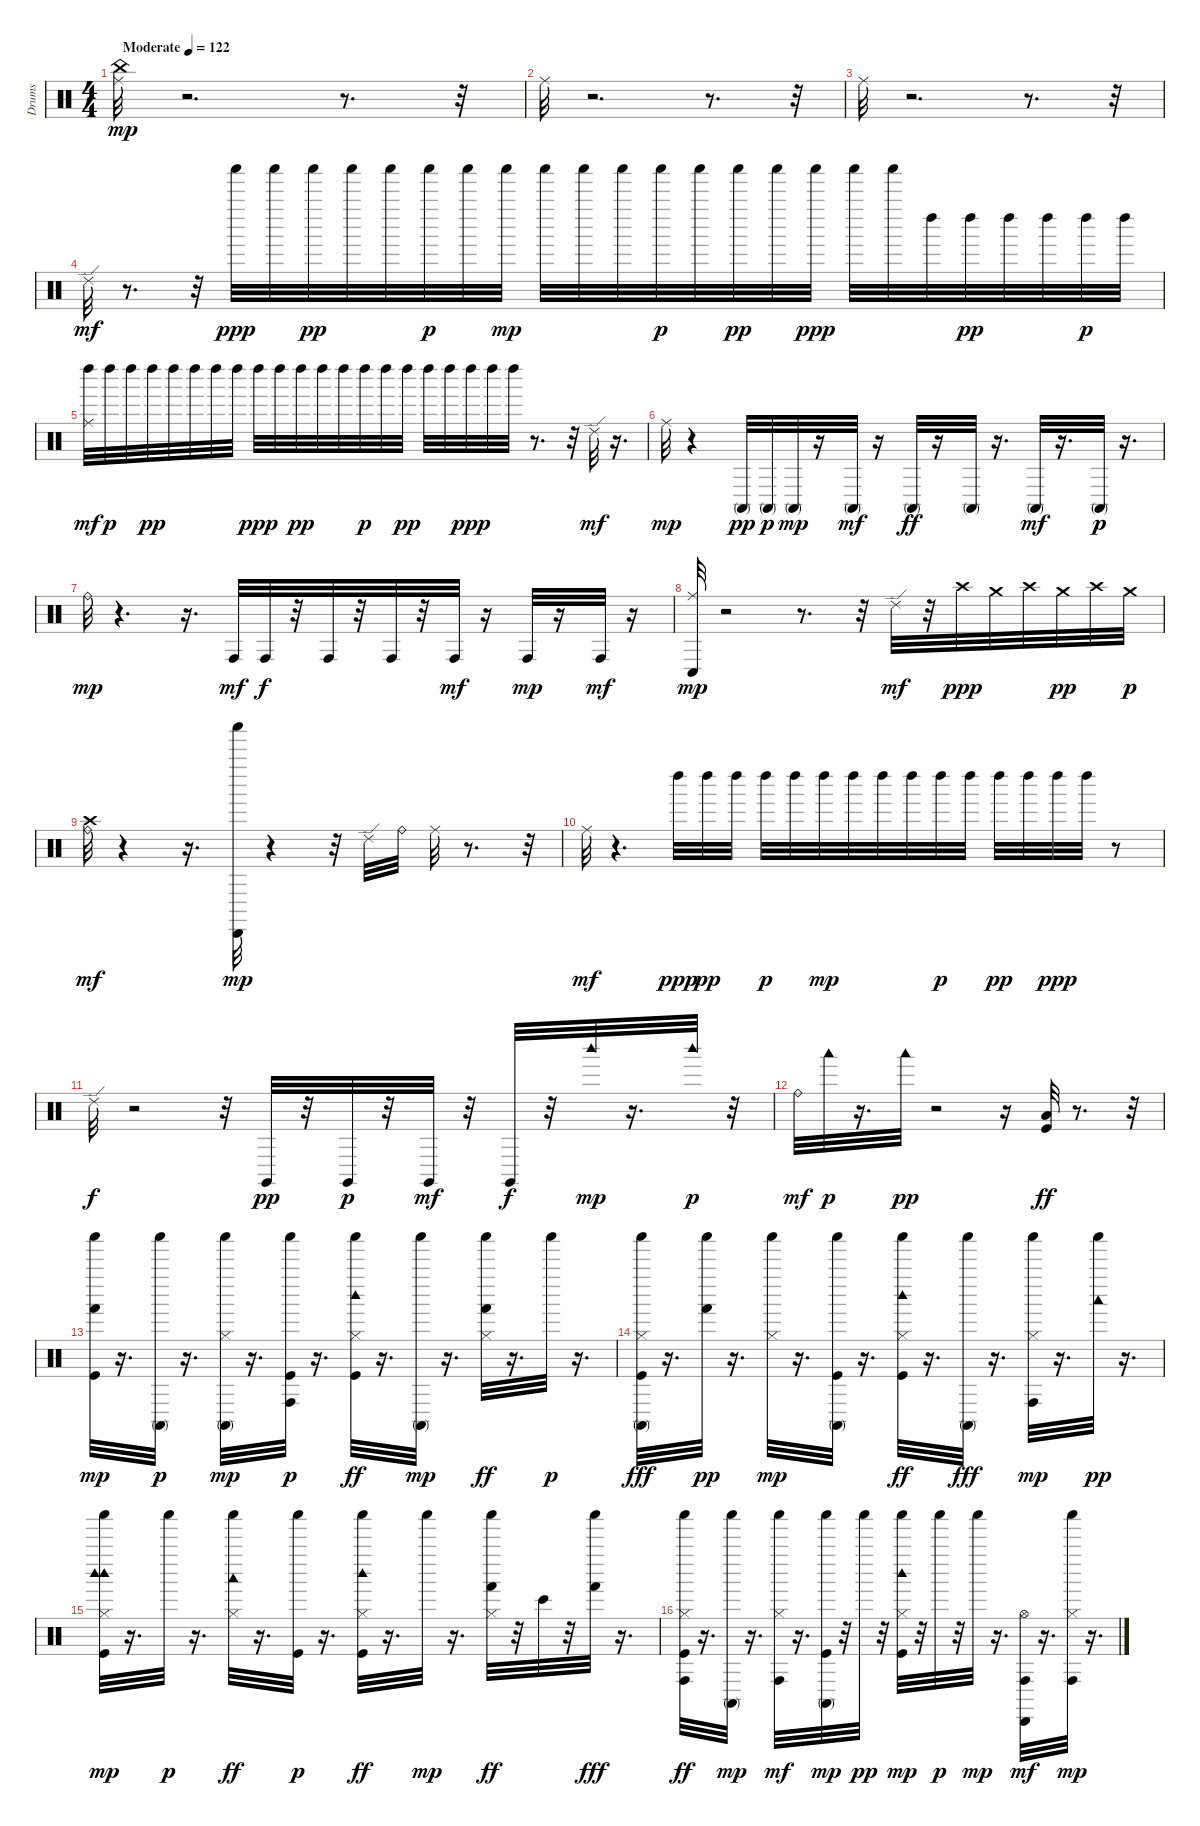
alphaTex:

\track ("Drums" "Drums") {instrument percussion}
\staff {score}
\articulation defaults
\ts (4 4)
\tempo (122 "Moderate")
\clef neutral
\ks c
("Ride (middle)" "China (hit)").32{dy mp} r.2{d} r.8{d} r.32 |
"Ride (middle)".32 r.2{d} r.8{d} r.32 |
"Ride (middle)".32 r.2{d} r.8{d} r.32 |
"Ride (edge) 2".32{dy mf} r.8{d} r.32 "Shaker (hit)".32{dy ppp} "Shaker (hit)".32 "Shaker (hit)".32{dy pp} "Shaker (hit)".32 "Shaker (hit)".32 "Shaker (hit)".32{dy p} "Shaker (hit)".32 "Shaker (hit)".32{dy mp} "Shaker (hit)".32 "Shaker (hit)".32 "Shaker (hit)".32 "Shaker (hit)".32{dy p} "Shaker (hit)".32 "Shaker (hit)".32{dy pp} "Shaker (hit)".32 "Shaker (hit)".32{dy ppp} "Shaker (hit)".32 "Shaker (hit)".32 "Left Maraca (hit)".32 "Left Maraca (hit)".32{dy pp} "Left Maraca (hit)".32 "Left Maraca (hit)".32 "Left Maraca (hit)".32{dy p} "Left Maraca (hit)".32 |
("Left Maraca (hit)" "Ride (middle)").32{dy mf} "Left Maraca (hit)".32{dy p} "Left Maraca (hit)".32 "Left Maraca (hit)".32{dy pp} "Left Maraca (hit)".32 "Left Maraca (hit)".32 "Left Maraca (hit)".32 "Left Maraca (hit)".32 "Left Maraca (hit)".32{dy ppp} "Left Maraca (hit)".32 "Left Maraca (hit)".32{dy pp} "Left Maraca (hit)".32 "Left Maraca (hit)".32 "Left Maraca (hit)".32{dy p} "Left Maraca (hit)".32 "Left Maraca (hit)".32{dy pp} "Left Maraca (hit)".32 "Left Maraca (hit)".32 "Left Maraca (hit)".32{dy ppp} "Left Maraca (hit)".32 "Left Maraca (hit)".32 r.8{d} r.32 "Ride (edge) 2".32{dy mf} r.16{d} |
"Ride (middle)".32{dy mp} r.4 "Conga high (mute)".32{dy pp} "Conga high (mute)".32{dy p} "Conga high (mute)".32{dy mp} r.16 "Conga high (mute)".32{dy mf} r.16 "Conga high (mute)".32{dy ff} r.16 "Conga high (mute)".32 r.16{d} "Conga high (mute)".32{dy mf} r.16{d} "Conga high (mute)".32{dy p} r.16{d} |
"Ride (bell)".32{dy mp} r.4{d} r.16{d} "Conga high (hit)".32{dy mf} "Conga high (hit)".32{dy f} r.32 "Conga high (hit)".32 r.32 "Conga high (hit)".32 r.32 "Conga high (hit)".32{dy mf} r.16 "Conga high (hit)".32{dy mp} r.16 "Conga high (hit)".32{dy mf} r.16 |
("Ride (middle)" "Conga low (hit)").32{dy mp} r.2 r.8{d} r.32 "Ride (edge) 2".32{dy mf} r.32 "Crash high (hit)".32{dy ppp} "Crash medium (hit)".32 "Crash high (hit)".32 "Crash medium (hit)".32{dy pp} "Crash high (hit)".32 "Crash medium (hit)".32{dy p} |
("Crash high (hit)" "Ride (bell)").32{dy mf} r.4 r.16{d} ("Cabasa (hit)" "Shaker (hit)").32{dy mp} r.4 r.32 "Ride (edge) 2".32 "Ride (bell)".32 "Ride (middle)".32 r.8{d} r.32 |
"Ride (middle)".32{dy mf} r.4{d} "Left Maraca (hit)".32{dy ppp} "Left Maraca (hit)".32{dy pp} "Left Maraca (hit)".32 "Left Maraca (hit)".32{dy p} "Left Maraca (hit)".32 "Left Maraca (hit)".32{dy mp} "Left Maraca (hit)".32 "Left Maraca (hit)".32 "Left Maraca (hit)".32 "Left Maraca (hit)".32{dy p} "Left Maraca (hit)".32 "Left Maraca (hit)".32{dy pp} "Left Maraca (hit)".32 "Left Maraca (hit)".32{dy ppp} "Left Maraca (hit)".32 r.8 |
"Ride (edge) 2".32{dy f} r.2 r.32 "Claves (hit)".32{dy pp} r.32 "Claves (hit)".32{dy p} r.32 "Claves (hit)".32{dy mf} r.32 "Claves (hit)".32{dy f} r.32 "Woodblock high (hit)".32{dy mp} r.16{d} "Woodblock high (hit)".32{dy p} r.32 |
"Ride (bell)".32{dy mf} "Woodblock low (hit)".32{dy p} r.16{d} "Woodblock low (hit)".32{dy pp} r.2 r.16 ("Low Floor Tom (hit)" "Kick (hit)").32{dy ff} r.8{d} r.32 |
("Kick (hit)" "Hand (hit)" "Shaker (hit)").32{dy mp} r.16{d} ("Conga high (mute)" "Shaker (hit)").32{dy p} r.16{d} ("Shaker (hit)" "Hi-Hat (closed)" "Conga high (mute)").32{dy mp} r.16{d} ("Shaker (hit)" "Kick (hit)" "Conga high (hit)").32{dy p} r.16{d} ("Shaker (hit)" "Kick (hit)" "Hi-Hat (closed)" "Woodblock high (hit)").32{dy ff} r.16{d} ("Shaker (hit)" "Conga high (mute)").32{dy mp} r.16{d} ("Hi-Hat (closed)" "Shaker (hit)" "Hand (hit)").32{dy ff} r.16{d} "Shaker (hit)".32{dy p} r.16{d} |
("Shaker (hit)" "Kick (hit)" "Hi-Hat (closed)" "Conga high (mute)").32{dy fff} r.16{d} ("Shaker (hit)" "Hand (hit)").32{dy pp} r.16{d} ("Shaker (hit)" "Hi-Hat (closed)").32{dy mp} r.16{d} ("Shaker (hit)" "Kick (hit)" "Conga high (mute)").32 r.16{d} ("Shaker (hit)" "Kick (hit)" "Hi-Hat (closed)" "Woodblock high (hit)").32{dy ff} r.16{d} ("Shaker (hit)" "Conga high (mute)").32{dy fff} r.16{d} ("Hi-Hat (closed)" "Shaker (hit)" "Conga high (hit)").32{dy mp} r.16{d} ("Shaker (hit)" "Woodblock low (hit)").32{dy pp} r.16{d} |
("Kick (hit)" "Hi-Hat (closed)" "Woodblock high (hit)" "Woodblock high (hit)" "Shaker (hit)").32{dy mp} r.16{d} "Shaker (hit)".32{dy p} r.16{d} ("Shaker (hit)" "Hi-Hat (closed)" "Woodblock low (hit)").32{dy ff} r.16{d} ("Shaker (hit)" "Kick (hit)").32{dy p} r.16{d} ("Shaker (hit)" "Kick (hit)" "Hi-Hat (closed)" "Woodblock high (hit)").32{dy ff} r.16{d} "Shaker (hit)".32{dy mp} r.16{d} ("Shaker (hit)" "Hi-Hat (closed)" "Hand (hit)").32{dy ff} r.32 "Bongo High (hit)".32 r.32 ("Shaker (hit)" "Hand (hit)").32{dy fff} r.16{d} |
("Shaker (hit)" "Kick (hit)" "Hi-Hat (closed)" "Conga high (hit)").32{dy ff} r.16{d} ("Shaker (hit)" "Conga high (mute)").32{dy mp} r.16{d} ("Shaker (hit)" "Hi-Hat (closed)" "Conga high (hit)").32{dy mf} r.16{d} ("Shaker (hit)" "Kick (hit)" "Conga high (mute)").32{dy mp} r.32 "Shaker (hit)".32{dy pp} r.32 ("Shaker (hit)" "Kick (hit)" "Hi-Hat (closed)" "Woodblock high (hit)").32{dy mp} r.32 "Shaker (hit)".32{dy p} r.32 "Shaker (hit)".32{dy mp} r.16{d} ("Hi-Hat (open)" "Conga high (hit)" "Cabasa (hit)").32{dy mf} r.16{d} ("Shaker (hit)" "Hi-Hat (closed)" "Conga high (hit)").32{dy mp} r.16{d}
